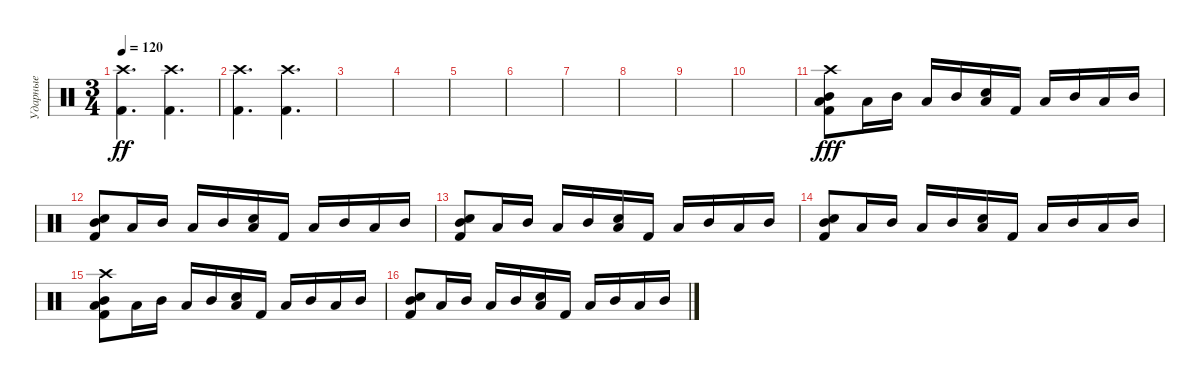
\track ("Ударные" "Ударные") {instrument percussion}
\staff {score}
\articulation defaults
\ts (3 4)
\tempo 120
\clef neutral
\ks c
("Crash high (hit)" "Kick (hit) 2").4{d dy ff} ("Crash high (hit)" "Kick (hit) 2").4{d} |
("Crash high (hit)" "Kick (hit) 2").4{d} ("Crash high (hit)" "Kick (hit) 2").4{d} |
|
|
|
|
|
|
|
|
("Crash high (hit)" "Mid Tom (hit)" "Low Floor Tom (hit)" "Kick (hit) 2").8{dy fff} "Low Tom (hit)".16 "Mid Tom (hit)".16 "Low Tom (hit)".16 "Mid Tom (hit)".16 ("Low Tom (hit)" "Electric Snare (hit)").16 "Kick (hit) 2".16 "Low Tom (hit)".16 "Mid Tom (hit)".16 "Low Tom (hit)".16 "Mid Tom (hit)".16 |
("Mid Tom (hit)" "Electric Snare (hit)" "Kick (hit) 2").8 "Low Tom (hit)".16 "Mid Tom (hit)".16 "Low Tom (hit)".16 "Mid Tom (hit)".16 ("Low Tom (hit)" "Electric Snare (hit)").16 "Kick (hit) 2".16 "Low Tom (hit)".16 "Mid Tom (hit)".16 "Low Tom (hit)".16 "Mid Tom (hit)".16 |
("Mid Tom (hit)" "Electric Snare (hit)" "Kick (hit) 2").8 "Low Tom (hit)".16 "Mid Tom (hit)".16 "Low Tom (hit)".16 "Mid Tom (hit)".16 ("Low Tom (hit)" "Electric Snare (hit)").16 "Kick (hit) 2".16 "Low Tom (hit)".16 "Mid Tom (hit)".16 "Low Tom (hit)".16 "Mid Tom (hit)".16 |
("Mid Tom (hit)" "Electric Snare (hit)" "Kick (hit) 2").8 "Low Tom (hit)".16 "Mid Tom (hit)".16 "Low Tom (hit)".16 "Mid Tom (hit)".16 ("Low Tom (hit)" "Electric Snare (hit)").16 "Kick (hit) 2".16 "Low Tom (hit)".16 "Mid Tom (hit)".16 "Low Tom (hit)".16 "Mid Tom (hit)".16 |
("Crash high (hit)" "Mid Tom (hit)" "Low Floor Tom (hit)" "Kick (hit) 2").8 "Low Tom (hit)".16 "Mid Tom (hit)".16 "Low Tom (hit)".16 "Mid Tom (hit)".16 ("Low Tom (hit)" "Electric Snare (hit)").16 "Kick (hit) 2".16 "Low Tom (hit)".16 "Mid Tom (hit)".16 "Low Tom (hit)".16 "Mid Tom (hit)".16 |
("Mid Tom (hit)" "Electric Snare (hit)" "Kick (hit) 2").8 "Low Tom (hit)".16 "Mid Tom (hit)".16 "Low Tom (hit)".16 "Mid Tom (hit)".16 ("Low Tom (hit)" "Electric Snare (hit)").16 "Kick (hit) 2".16 "Low Tom (hit)".16 "Mid Tom (hit)".16 "Low Tom (hit)".16 "Mid Tom (hit)".16
